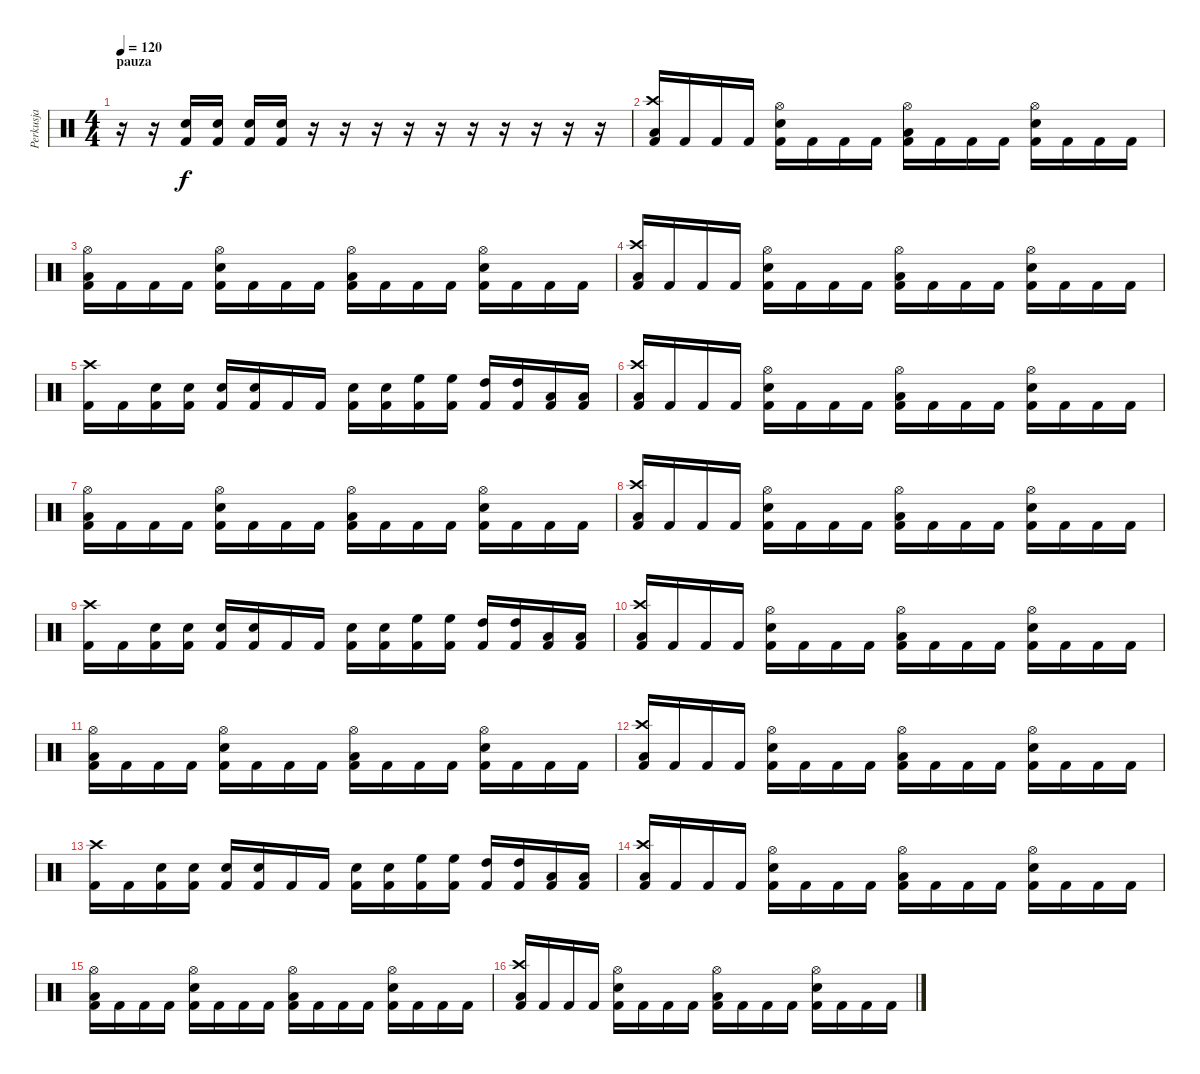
\track ("Perkusja" "Perkusja") {instrument percussion}
\staff {score}
\articulation defaults
\ts (4 4)
\section ("" "pauza")
\tempo 120
\clef neutral
\ks c
r.16{dy f} r.16 ("Electric Snare (hit)" "Kick (hit) 2").16 ("Electric Snare (hit)" "Kick (hit) 2").16 ("Electric Snare (hit)" "Kick (hit) 2").16 ("Electric Snare (hit)" "Kick (hit) 2").16 r.16 r.16 r.16 r.16 r.16 r.16 r.16 r.16 r.16 r.16 |
("Crash high (hit)" "Low Floor Tom (hit)" "Kick (hit) 2").16 "Kick (hit) 2".16 "Kick (hit) 2".16 "Kick (hit) 2".16 ("Hi-Hat (open)" "Electric Snare (hit)" "Kick (hit) 2").16 "Kick (hit) 2".16 "Kick (hit) 2".16 "Kick (hit) 2".16 ("Hi-Hat (open)" "Low Floor Tom (hit)" "Kick (hit) 2").16 "Kick (hit) 2".16 "Kick (hit) 2".16 "Kick (hit) 2".16 ("Hi-Hat (open)" "Electric Snare (hit)" "Kick (hit) 2").16 "Kick (hit) 2".16 "Kick (hit) 2".16 "Kick (hit) 2".16 |
("Hi-Hat (open)" "Low Floor Tom (hit)" "Kick (hit) 2").16 "Kick (hit) 2".16 "Kick (hit) 2".16 "Kick (hit) 2".16 ("Hi-Hat (open)" "Electric Snare (hit)" "Kick (hit) 2").16 "Kick (hit) 2".16 "Kick (hit) 2".16 "Kick (hit) 2".16 ("Hi-Hat (open)" "Low Floor Tom (hit)" "Kick (hit) 2").16 "Kick (hit) 2".16 "Kick (hit) 2".16 "Kick (hit) 2".16 ("Hi-Hat (open)" "Electric Snare (hit)" "Kick (hit) 2").16 "Kick (hit) 2".16 "Kick (hit) 2".16 "Kick (hit) 2".16 |
("Crash high (hit)" "Low Floor Tom (hit)" "Kick (hit) 2").16 "Kick (hit) 2".16 "Kick (hit) 2".16 "Kick (hit) 2".16 ("Hi-Hat (open)" "Electric Snare (hit)" "Kick (hit) 2").16 "Kick (hit) 2".16 "Kick (hit) 2".16 "Kick (hit) 2".16 ("Hi-Hat (open)" "Low Floor Tom (hit)" "Kick (hit) 2").16 "Kick (hit) 2".16 "Kick (hit) 2".16 "Kick (hit) 2".16 ("Hi-Hat (open)" "Electric Snare (hit)" "Kick (hit) 2").16 "Kick (hit) 2".16 "Kick (hit) 2".16 "Kick (hit) 2".16 |
("Crash high (hit)" "Kick (hit) 2").16 "Kick (hit) 2".16 ("Electric Snare (hit)" "Kick (hit) 2").16 ("Electric Snare (hit)" "Kick (hit) 2").16 ("Electric Snare (hit)" "Kick (hit) 2").16 ("Electric Snare (hit)" "Kick (hit) 2").16 "Kick (hit) 2".16 "Kick (hit) 2".16 ("Electric Snare (hit)" "Kick (hit) 2").16 ("Electric Snare (hit)" "Kick (hit) 2").16 ("High Floor Tom (hit)" "Kick (hit) 2").16 ("High Floor Tom (hit)" "Kick (hit) 2").16 ("High Tom (hit)" "Kick (hit) 2").16 ("High Tom (hit)" "Kick (hit) 2").16 ("Low Floor Tom (hit)" "Kick (hit) 2").16 ("Low Floor Tom (hit)" "Kick (hit) 2").16 |
("Crash high (hit)" "Low Floor Tom (hit)" "Kick (hit) 2").16 "Kick (hit) 2".16 "Kick (hit) 2".16 "Kick (hit) 2".16 ("Hi-Hat (open)" "Electric Snare (hit)" "Kick (hit) 2").16 "Kick (hit) 2".16 "Kick (hit) 2".16 "Kick (hit) 2".16 ("Hi-Hat (open)" "Low Floor Tom (hit)" "Kick (hit) 2").16 "Kick (hit) 2".16 "Kick (hit) 2".16 "Kick (hit) 2".16 ("Hi-Hat (open)" "Electric Snare (hit)" "Kick (hit) 2").16 "Kick (hit) 2".16 "Kick (hit) 2".16 "Kick (hit) 2".16 |
("Hi-Hat (open)" "Low Floor Tom (hit)" "Kick (hit) 2").16 "Kick (hit) 2".16 "Kick (hit) 2".16 "Kick (hit) 2".16 ("Hi-Hat (open)" "Electric Snare (hit)" "Kick (hit) 2").16 "Kick (hit) 2".16 "Kick (hit) 2".16 "Kick (hit) 2".16 ("Hi-Hat (open)" "Low Floor Tom (hit)" "Kick (hit) 2").16 "Kick (hit) 2".16 "Kick (hit) 2".16 "Kick (hit) 2".16 ("Hi-Hat (open)" "Electric Snare (hit)" "Kick (hit) 2").16 "Kick (hit) 2".16 "Kick (hit) 2".16 "Kick (hit) 2".16 |
("Crash high (hit)" "Low Floor Tom (hit)" "Kick (hit) 2").16 "Kick (hit) 2".16 "Kick (hit) 2".16 "Kick (hit) 2".16 ("Hi-Hat (open)" "Electric Snare (hit)" "Kick (hit) 2").16 "Kick (hit) 2".16 "Kick (hit) 2".16 "Kick (hit) 2".16 ("Hi-Hat (open)" "Low Floor Tom (hit)" "Kick (hit) 2").16 "Kick (hit) 2".16 "Kick (hit) 2".16 "Kick (hit) 2".16 ("Hi-Hat (open)" "Electric Snare (hit)" "Kick (hit) 2").16 "Kick (hit) 2".16 "Kick (hit) 2".16 "Kick (hit) 2".16 |
("Crash high (hit)" "Kick (hit) 2").16 "Kick (hit) 2".16 ("Electric Snare (hit)" "Kick (hit) 2").16 ("Electric Snare (hit)" "Kick (hit) 2").16 ("Electric Snare (hit)" "Kick (hit) 2").16 ("Electric Snare (hit)" "Kick (hit) 2").16 "Kick (hit) 2".16 "Kick (hit) 2".16 ("Electric Snare (hit)" "Kick (hit) 2").16 ("Electric Snare (hit)" "Kick (hit) 2").16 ("High Floor Tom (hit)" "Kick (hit) 2").16 ("High Floor Tom (hit)" "Kick (hit) 2").16 ("High Tom (hit)" "Kick (hit) 2").16 ("High Tom (hit)" "Kick (hit) 2").16 ("Low Floor Tom (hit)" "Kick (hit) 2").16 ("Low Floor Tom (hit)" "Kick (hit) 2").16 |
("Crash high (hit)" "Low Floor Tom (hit)" "Kick (hit) 2").16 "Kick (hit) 2".16 "Kick (hit) 2".16 "Kick (hit) 2".16 ("Hi-Hat (open)" "Electric Snare (hit)" "Kick (hit) 2").16 "Kick (hit) 2".16 "Kick (hit) 2".16 "Kick (hit) 2".16 ("Hi-Hat (open)" "Low Floor Tom (hit)" "Kick (hit) 2").16 "Kick (hit) 2".16 "Kick (hit) 2".16 "Kick (hit) 2".16 ("Hi-Hat (open)" "Electric Snare (hit)" "Kick (hit) 2").16 "Kick (hit) 2".16 "Kick (hit) 2".16 "Kick (hit) 2".16 |
("Hi-Hat (open)" "Low Floor Tom (hit)" "Kick (hit) 2").16 "Kick (hit) 2".16 "Kick (hit) 2".16 "Kick (hit) 2".16 ("Hi-Hat (open)" "Electric Snare (hit)" "Kick (hit) 2").16 "Kick (hit) 2".16 "Kick (hit) 2".16 "Kick (hit) 2".16 ("Hi-Hat (open)" "Low Floor Tom (hit)" "Kick (hit) 2").16 "Kick (hit) 2".16 "Kick (hit) 2".16 "Kick (hit) 2".16 ("Hi-Hat (open)" "Electric Snare (hit)" "Kick (hit) 2").16 "Kick (hit) 2".16 "Kick (hit) 2".16 "Kick (hit) 2".16 |
("Crash high (hit)" "Low Floor Tom (hit)" "Kick (hit) 2").16 "Kick (hit) 2".16 "Kick (hit) 2".16 "Kick (hit) 2".16 ("Hi-Hat (open)" "Electric Snare (hit)" "Kick (hit) 2").16 "Kick (hit) 2".16 "Kick (hit) 2".16 "Kick (hit) 2".16 ("Hi-Hat (open)" "Low Floor Tom (hit)" "Kick (hit) 2").16 "Kick (hit) 2".16 "Kick (hit) 2".16 "Kick (hit) 2".16 ("Hi-Hat (open)" "Electric Snare (hit)" "Kick (hit) 2").16 "Kick (hit) 2".16 "Kick (hit) 2".16 "Kick (hit) 2".16 |
("Crash high (hit)" "Kick (hit) 2").16 "Kick (hit) 2".16 ("Electric Snare (hit)" "Kick (hit) 2").16 ("Electric Snare (hit)" "Kick (hit) 2").16 ("Electric Snare (hit)" "Kick (hit) 2").16 ("Electric Snare (hit)" "Kick (hit) 2").16 "Kick (hit) 2".16 "Kick (hit) 2".16 ("Electric Snare (hit)" "Kick (hit) 2").16 ("Electric Snare (hit)" "Kick (hit) 2").16 ("High Floor Tom (hit)" "Kick (hit) 2").16 ("High Floor Tom (hit)" "Kick (hit) 2").16 ("High Tom (hit)" "Kick (hit) 2").16 ("High Tom (hit)" "Kick (hit) 2").16 ("Low Floor Tom (hit)" "Kick (hit) 2").16 ("Low Floor Tom (hit)" "Kick (hit) 2").16 |
("Crash high (hit)" "Low Floor Tom (hit)" "Kick (hit) 2").16 "Kick (hit) 2".16 "Kick (hit) 2".16 "Kick (hit) 2".16 ("Hi-Hat (open)" "Electric Snare (hit)" "Kick (hit) 2").16 "Kick (hit) 2".16 "Kick (hit) 2".16 "Kick (hit) 2".16 ("Hi-Hat (open)" "Low Floor Tom (hit)" "Kick (hit) 2").16 "Kick (hit) 2".16 "Kick (hit) 2".16 "Kick (hit) 2".16 ("Hi-Hat (open)" "Electric Snare (hit)" "Kick (hit) 2").16 "Kick (hit) 2".16 "Kick (hit) 2".16 "Kick (hit) 2".16 |
("Hi-Hat (open)" "Low Floor Tom (hit)" "Kick (hit) 2").16 "Kick (hit) 2".16 "Kick (hit) 2".16 "Kick (hit) 2".16 ("Hi-Hat (open)" "Electric Snare (hit)" "Kick (hit) 2").16 "Kick (hit) 2".16 "Kick (hit) 2".16 "Kick (hit) 2".16 ("Hi-Hat (open)" "Low Floor Tom (hit)" "Kick (hit) 2").16 "Kick (hit) 2".16 "Kick (hit) 2".16 "Kick (hit) 2".16 ("Hi-Hat (open)" "Electric Snare (hit)" "Kick (hit) 2").16 "Kick (hit) 2".16 "Kick (hit) 2".16 "Kick (hit) 2".16 |
("Crash high (hit)" "Low Floor Tom (hit)" "Kick (hit) 2").16 "Kick (hit) 2".16 "Kick (hit) 2".16 "Kick (hit) 2".16 ("Hi-Hat (open)" "Electric Snare (hit)" "Kick (hit) 2").16 "Kick (hit) 2".16 "Kick (hit) 2".16 "Kick (hit) 2".16 ("Hi-Hat (open)" "Low Floor Tom (hit)" "Kick (hit) 2").16 "Kick (hit) 2".16 "Kick (hit) 2".16 "Kick (hit) 2".16 ("Hi-Hat (open)" "Electric Snare (hit)" "Kick (hit) 2").16 "Kick (hit) 2".16 "Kick (hit) 2".16 "Kick (hit) 2".16
